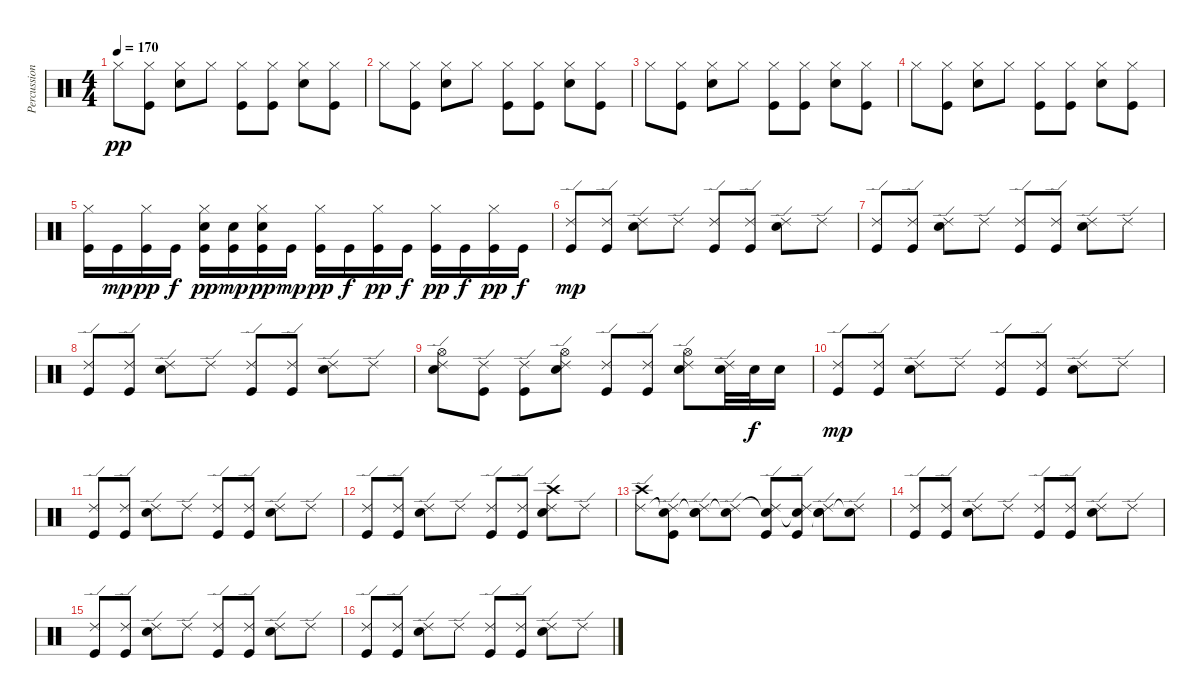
\track ("Percussion" "Percussion") {instrument percussion}
\staff {score}
\articulation defaults
\ts (4 4)
\tempo 170
\clef neutral
\ks c "Hi-Hat (closed)".8{dy pp}
("Kick (hit)" "Hi-Hat (closed)").8 ("Electric Snare (hit)" "Hi-Hat (closed)").8 "Hi-Hat (closed)".8 ("Kick (hit)" "Hi-Hat (closed)").8 ("Kick (hit)" "Hi-Hat (closed)").8 ("Electric Snare (hit)" "Hi-Hat (closed)").8 ("Kick (hit)" "Hi-Hat (closed)").8 |
"Hi-Hat (closed)".8 ("Kick (hit)" "Hi-Hat (closed)").8 ("Electric Snare (hit)" "Hi-Hat (closed)").8 "Hi-Hat (closed)".8 ("Kick (hit)" "Hi-Hat (closed)").8 ("Kick (hit)" "Hi-Hat (closed)").8 ("Electric Snare (hit)" "Hi-Hat (closed)").8 ("Kick (hit)" "Hi-Hat (closed)").8 |
"Hi-Hat (closed)".8 ("Kick (hit)" "Hi-Hat (closed)").8 ("Electric Snare (hit)" "Hi-Hat (closed)").8 "Hi-Hat (closed)".8 ("Kick (hit)" "Hi-Hat (closed)").8 ("Kick (hit)" "Hi-Hat (closed)").8 ("Electric Snare (hit)" "Hi-Hat (closed)").8 ("Kick (hit)" "Hi-Hat (closed)").8 |
"Hi-Hat (closed)".8 ("Kick (hit)" "Hi-Hat (closed)").8 ("Electric Snare (hit)" "Hi-Hat (closed)").8 "Hi-Hat (closed)".8 ("Kick (hit)" "Hi-Hat (closed)").8 ("Kick (hit)" "Hi-Hat (closed)").8 ("Electric Snare (hit)" "Hi-Hat (closed)").8 ("Kick (hit)" "Hi-Hat (closed)").8 |
("Kick (hit)" "Hi-Hat (closed)").16 "Kick (hit)".16{dy mp} ("Kick (hit)" "Hi-Hat (closed)").16{dy pp} "Kick (hit)".16{dy f} ("Kick (hit)" "Electric Snare (hit)" "Hi-Hat (closed)").16{dy pp} ("Kick (hit)" "Electric Snare (hit)").16{dy mp} ("Kick (hit)" "Electric Snare (hit)" "Hi-Hat (closed)").16{dy pp} "Kick (hit)".16{dy mp} ("Kick (hit)" "Hi-Hat (closed)").16{dy pp} "Kick (hit)".16{dy f} ("Kick (hit)" "Hi-Hat (closed)").16{dy pp} "Kick (hit)".16{dy f} ("Kick (hit)" "Hi-Hat (closed)").16{dy pp} "Kick (hit)".16{dy f} ("Kick (hit)" "Hi-Hat (closed)").16{dy pp} "Kick (hit)".16{dy f} |
("Kick (hit)" "Ride (edge) 2").8{dy mp} ("Kick (hit)" "Ride (edge) 2").8 ("Electric Snare (hit)" "Ride (edge) 2").8 "Ride (edge) 2".8 ("Kick (hit)" "Ride (edge) 2").8 ("Kick (hit)" "Ride (edge) 2").8 ("Electric Snare (hit)" "Ride (edge) 2").8 "Ride (edge) 2".8 |
("Kick (hit)" "Ride (edge) 2").8 ("Kick (hit)" "Ride (edge) 2").8 ("Electric Snare (hit)" "Ride (edge) 2").8 "Ride (edge) 2".8 ("Kick (hit)" "Ride (edge) 2").8 ("Kick (hit)" "Ride (edge) 2").8 ("Electric Snare (hit)" "Ride (edge) 2").8 "Ride (edge) 2".8 |
("Kick (hit)" "Ride (edge) 2").8 ("Kick (hit)" "Ride (edge) 2").8 ("Electric Snare (hit)" "Ride (edge) 2").8 "Ride (edge) 2".8 ("Kick (hit)" "Ride (edge) 2").8 ("Kick (hit)" "Ride (edge) 2").8 ("Electric Snare (hit)" "Ride (edge) 2").8 "Ride (edge) 2".8 |
("Hi-Hat (open)" "Electric Snare (hit)" "Ride (edge) 2").8 ("Kick (hit)" "Ride (edge) 2").8 ("Kick (hit)" "Ride (edge) 2").8 ("Hi-Hat (open)" "Electric Snare (hit)" "Ride (edge) 2").8 ("Kick (hit)" "Ride (edge) 2").8 ("Kick (hit)" "Ride (edge) 2").8 ("Hi-Hat (open)" "Electric Snare (hit)" "Ride (edge) 2").8 ("Electric Snare (hit)" "Ride (edge) 2").32 "Electric Snare (hit)".32{dy f} "Electric Snare (hit)".16 |
("Kick (hit)" "Ride (edge) 2").8{dy mp} ("Kick (hit)" "Ride (edge) 2").8 ("Electric Snare (hit)" "Ride (edge) 2").8 "Ride (edge) 2".8 ("Kick (hit)" "Ride (edge) 2").8 ("Kick (hit)" "Ride (edge) 2").8 ("Electric Snare (hit)" "Ride (edge) 2").8 "Ride (edge) 2".8 |
("Kick (hit)" "Ride (edge) 2").8 ("Kick (hit)" "Ride (edge) 2").8 ("Electric Snare (hit)" "Ride (edge) 2").8 "Ride (edge) 2".8 ("Kick (hit)" "Ride (edge) 2").8 ("Kick (hit)" "Ride (edge) 2").8 ("Electric Snare (hit)" "Ride (edge) 2").8 "Ride (edge) 2".8 |
("Kick (hit)" "Ride (edge) 2").8 ("Kick (hit)" "Ride (edge) 2").8 ("Electric Snare (hit)" "Ride (edge) 2").8 "Ride (edge) 2".8 ("Kick (hit)" "Ride (edge) 2").8 ("Kick (hit)" "Ride (edge) 2").8 ("Electric Snare (hit)" "Crash high (hit)" "Ride (edge) 2").8 "Ride (edge) 2".8 |
("Crash high (hit)" "Ride (edge) 2").8 ("Kick (hit)" "Snare (hit)"{t} "Ride (edge) 2").8 ("Electric Snare (hit)" "Snare (hit)"{t} "Ride (edge) 2").8 ("Snare (hit)"{t} "Ride (edge) 2").8 ("Kick (hit)" "Snare (hit)"{t} "Ride (edge) 2").8 ("Kick (hit)" "Snare (hit)"{t} "Ride (edge) 2").8 ("Electric Snare (hit)" "Snare (hit)"{t} "Ride (edge) 2").8 ("Snare (hit)"{t} "Ride (edge) 2").8 |
("Kick (hit)" "Ride (edge) 2").8 ("Kick (hit)" "Ride (edge) 2").8 ("Electric Snare (hit)" "Ride (edge) 2").8 "Ride (edge) 2".8 ("Kick (hit)" "Ride (edge) 2").8 ("Kick (hit)" "Ride (edge) 2").8 ("Electric Snare (hit)" "Ride (edge) 2").8 "Ride (edge) 2".8 |
("Kick (hit)" "Ride (edge) 2").8 ("Kick (hit)" "Ride (edge) 2").8 ("Electric Snare (hit)" "Ride (edge) 2").8 "Ride (edge) 2".8 ("Kick (hit)" "Ride (edge) 2").8 ("Kick (hit)" "Ride (edge) 2").8 ("Electric Snare (hit)" "Ride (edge) 2").8 "Ride (edge) 2".8 |
("Kick (hit)" "Ride (edge) 2").8 ("Kick (hit)" "Ride (edge) 2").8 ("Electric Snare (hit)" "Ride (edge) 2").8 "Ride (edge) 2".8 ("Kick (hit)" "Ride (edge) 2").8 ("Kick (hit)" "Ride (edge) 2").8 ("Electric Snare (hit)" "Ride (edge) 2").8 "Ride (edge) 2".8
